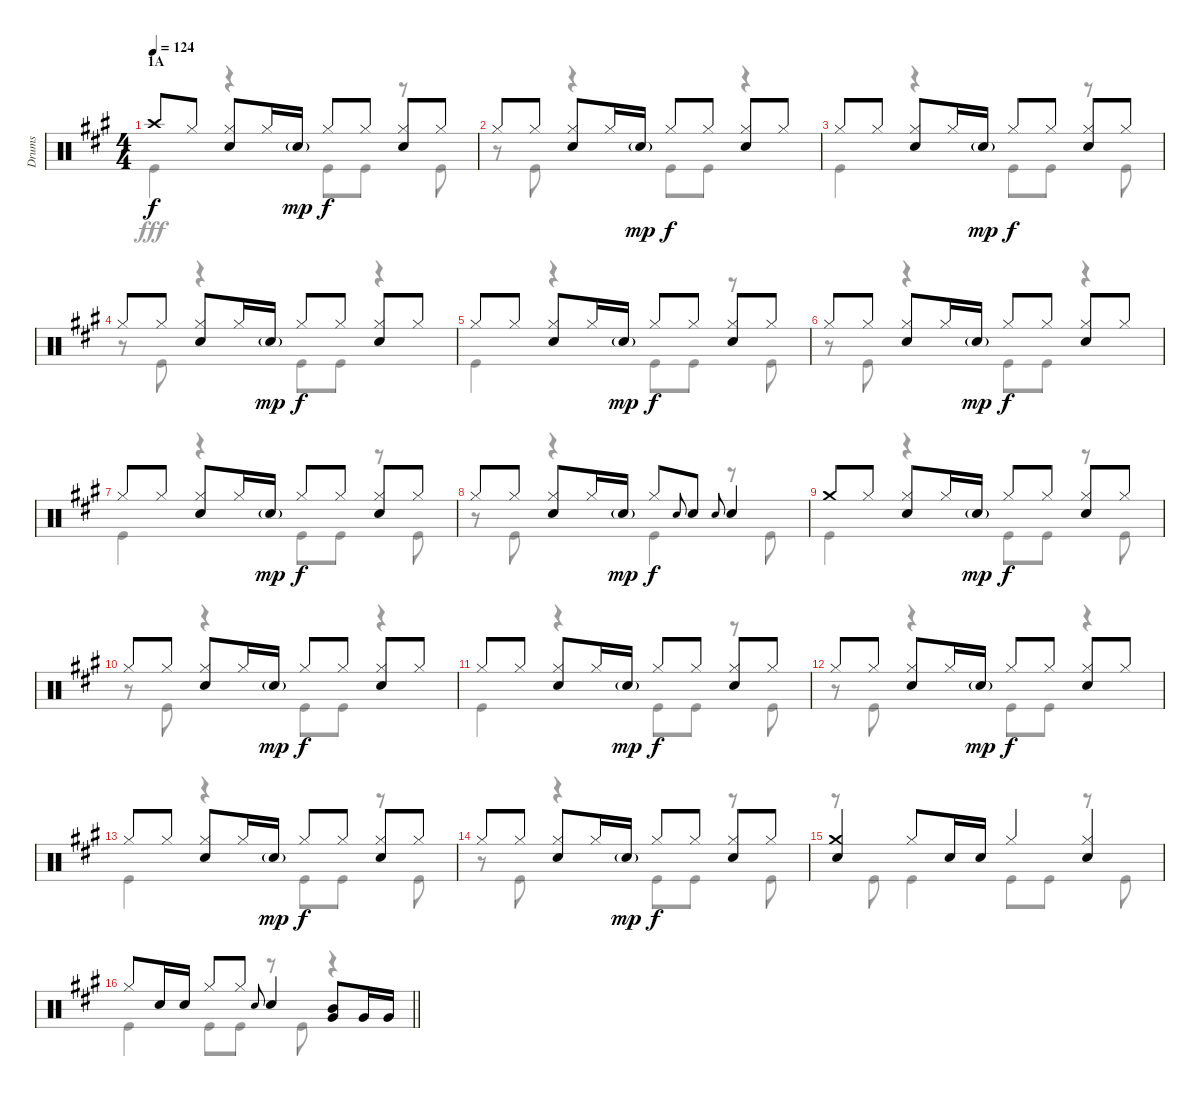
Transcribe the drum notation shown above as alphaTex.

\track ("Drums" "Drums") {instrument percussion}
\staff {score}
\articulation defaults
\voice
\ts (4 4)
\section ("" "1A")
\tempo 124
\clef neutral
\ks a "Crash high (hit)".8{dy f} "Hi-Hat (closed)".8
("Hi-Hat (closed)" "Snare (hit) 2").8 "Hi-Hat (closed)".16 "Snare (hit) 2"{g}.16{dy mp} "Hi-Hat (closed)".8{dy f} "Hi-Hat (closed)".8 ("Hi-Hat (closed)" "Snare (hit) 2").8 "Hi-Hat (closed)".8 |
"Hi-Hat (closed)".8 "Hi-Hat (closed)".8 ("Hi-Hat (closed)" "Snare (hit) 2").8 "Hi-Hat (closed)".16 "Snare (hit) 2"{g}.16{dy mp} "Hi-Hat (closed)".8{dy f} "Hi-Hat (closed)".8 ("Hi-Hat (closed)" "Snare (hit) 2").8 "Hi-Hat (closed)".8 |
"Hi-Hat (closed)".8 "Hi-Hat (closed)".8 ("Hi-Hat (closed)" "Snare (hit) 2").8 "Hi-Hat (closed)".16 "Snare (hit) 2"{g}.16{dy mp} "Hi-Hat (closed)".8{dy f} "Hi-Hat (closed)".8 ("Hi-Hat (closed)" "Snare (hit) 2").8 "Hi-Hat (closed)".8 |
"Hi-Hat (closed)".8 "Hi-Hat (closed)".8 ("Hi-Hat (closed)" "Snare (hit) 2").8 "Hi-Hat (closed)".16 "Snare (hit) 2"{g}.16{dy mp} "Hi-Hat (closed)".8{dy f} "Hi-Hat (closed)".8 ("Hi-Hat (closed)" "Snare (hit) 2").8 "Hi-Hat (closed)".8 |
"Hi-Hat (closed)".8 "Hi-Hat (closed)".8 ("Hi-Hat (closed)" "Snare (hit) 2").8 "Hi-Hat (closed)".16 "Snare (hit) 2"{g}.16{dy mp} "Hi-Hat (closed)".8{dy f} "Hi-Hat (closed)".8 ("Hi-Hat (closed)" "Snare (hit) 2").8 "Hi-Hat (closed)".8 |
"Hi-Hat (closed)".8 "Hi-Hat (closed)".8 ("Hi-Hat (closed)" "Snare (hit) 2").8 "Hi-Hat (closed)".16 "Snare (hit) 2"{g}.16{dy mp} "Hi-Hat (closed)".8{dy f} "Hi-Hat (closed)".8 ("Hi-Hat (closed)" "Snare (hit) 2").8 "Hi-Hat (closed)".8 |
"Hi-Hat (closed)".8 "Hi-Hat (closed)".8 ("Hi-Hat (closed)" "Snare (hit) 2").8 "Hi-Hat (closed)".16 "Snare (hit) 2"{g}.16{dy mp} "Hi-Hat (closed)".8{dy f} "Hi-Hat (closed)".8 ("Hi-Hat (closed)" "Snare (hit) 2").8 "Hi-Hat (closed)".8 |
"Hi-Hat (closed)".8 "Hi-Hat (closed)".8 ("Hi-Hat (closed)" "Snare (hit) 2").8 "Hi-Hat (closed)".16 "Snare (hit) 2"{g}.16{dy mp} "Hi-Hat (closed)".8{dy f} "Snare (hit) 2".8{gr onbeat} "Snare (hit) 2".8 "Snare (hit) 2".8{gr onbeat} "Snare (hit) 2".4 |
"Crash medium (hit)".8 "Hi-Hat (closed)".8 ("Hi-Hat (closed)" "Snare (hit) 2").8 "Hi-Hat (closed)".16 "Snare (hit) 2"{g}.16{dy mp} "Hi-Hat (closed)".8{dy f} "Hi-Hat (closed)".8 ("Hi-Hat (closed)" "Snare (hit) 2").8 "Hi-Hat (closed)".8 |
"Hi-Hat (closed)".8 "Hi-Hat (closed)".8 ("Hi-Hat (closed)" "Snare (hit) 2").8 "Hi-Hat (closed)".16 "Snare (hit) 2"{g}.16{dy mp} "Hi-Hat (closed)".8{dy f} "Hi-Hat (closed)".8 ("Hi-Hat (closed)" "Snare (hit) 2").8 "Hi-Hat (closed)".8 |
"Hi-Hat (closed)".8 "Hi-Hat (closed)".8 ("Hi-Hat (closed)" "Snare (hit) 2").8 "Hi-Hat (closed)".16 "Snare (hit) 2"{g}.16{dy mp} "Hi-Hat (closed)".8{dy f} "Hi-Hat (closed)".8 ("Hi-Hat (closed)" "Snare (hit) 2").8 "Hi-Hat (closed)".8 |
"Hi-Hat (closed)".8 "Hi-Hat (closed)".8 ("Hi-Hat (closed)" "Snare (hit) 2").8 "Hi-Hat (closed)".16 "Snare (hit) 2"{g}.16{dy mp} "Hi-Hat (closed)".8{dy f} "Hi-Hat (closed)".8 ("Hi-Hat (closed)" "Snare (hit) 2").8 "Hi-Hat (closed)".8 |
"Hi-Hat (closed)".8 "Hi-Hat (closed)".8 ("Hi-Hat (closed)" "Snare (hit) 2").8 "Hi-Hat (closed)".16 "Snare (hit) 2"{g}.16{dy mp} "Hi-Hat (closed)".8{dy f} "Hi-Hat (closed)".8 ("Hi-Hat (closed)" "Snare (hit) 2").8 "Hi-Hat (closed)".8 |
"Hi-Hat (closed)".8 "Hi-Hat (closed)".8 ("Hi-Hat (closed)" "Snare (hit) 2").8 "Hi-Hat (closed)".16 "Snare (hit) 2"{g}.16{dy mp} "Hi-Hat (closed)".8{dy f} "Hi-Hat (closed)".8 ("Hi-Hat (closed)" "Snare (hit) 2").8 "Hi-Hat (closed)".8 |
("Crash medium (hit)" "Snare (hit) 2").4 "Hi-Hat (closed)".8 "Snare (hit) 2".16 "Snare (hit) 2".16 "Hi-Hat (closed)".4 ("Hi-Hat (closed)" "Snare (hit) 2").4 |
\barLineRight lightlight "Hi-Hat (closed)".8 "Snare (hit) 2".16 "Snare (hit) 2".16 "Hi-Hat (closed)".8 "Hi-Hat (closed)".8 "Snare (hit) 2".8{gr onbeat} "Snare (hit) 2".4
("Mid Tom (hit)" "Very Low Tom (hit)").8 "Very Low Tom (hit)".16 "Very Low Tom (hit)".16
\voice
\clef neutral
\ottava regular
\simile none
\ks a "Kick (hit)".4{dy fff}
r.4 "Kick (hit)".8 "Kick (hit)".8 r.8 "Kick (hit)".8 |
r.8 "Kick (hit)".8 r.4 "Kick (hit)".8 "Kick (hit)".8 r.4 |
"Kick (hit)".4 r.4 "Kick (hit)".8 "Kick (hit)".8 r.8 "Kick (hit)".8 |
r.8 "Kick (hit)".8 r.4 "Kick (hit)".8 "Kick (hit)".8 r.4 |
"Kick (hit)".4 r.4 "Kick (hit)".8 "Kick (hit)".8 r.8 "Kick (hit)".8 |
r.8 "Kick (hit)".8 r.4 "Kick (hit)".8 "Kick (hit)".8 r.4 |
"Kick (hit)".4 r.4 "Kick (hit)".8 "Kick (hit)".8 r.8 "Kick (hit)".8 |
r.8 "Kick (hit)".8 r.4 "Kick (hit)".4 r.8 "Kick (hit)".8 |
"Kick (hit)".4 r.4 "Kick (hit)".8 "Kick (hit)".8 r.8 "Kick (hit)".8 |
r.8 "Kick (hit)".8 r.4 "Kick (hit)".8 "Kick (hit)".8 r.4 |
"Kick (hit)".4 r.4 "Kick (hit)".8 "Kick (hit)".8 r.8 "Kick (hit)".8 |
r.8 "Kick (hit)".8 r.4 "Kick (hit)".8 "Kick (hit)".8 r.4 |
"Kick (hit)".4 r.4 "Kick (hit)".8 "Kick (hit)".8 r.8 "Kick (hit)".8 |
r.8 "Kick (hit)".8 r.4 "Kick (hit)".8 "Kick (hit)".8 r.8 "Kick (hit)".8 |
r.8 "Kick (hit)".8 "Kick (hit)".4 "Kick (hit)".8 "Kick (hit)".8 r.8 "Kick (hit)".8 |
\barLineRight lightlight "Kick (hit)".4 "Kick (hit)".8 "Kick (hit)".8
r.8 "Kick (hit)".8 r.4
